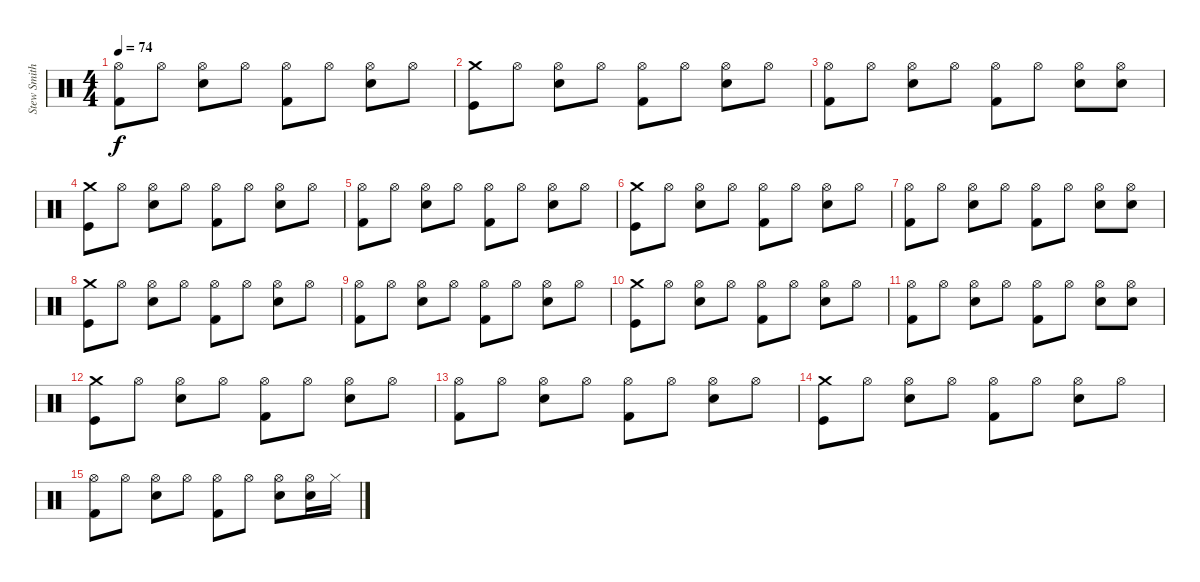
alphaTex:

\track ("Stew Smith" "Stew Smith") {instrument percussion}
\staff {score}
\articulation defaults
\ts (4 4)
\tempo 74
\clef neutral
\ks c
("Hi-Hat (open)" "Kick (hit) 2").8{dy f} "Hi-Hat (open)".8 ("Hi-Hat (open)" "Electric Snare (hit)").8 "Hi-Hat (open)".8 ("Hi-Hat (open)" "Kick (hit) 2").8 "Hi-Hat (open)".8 ("Hi-Hat (open)" "Electric Snare (hit)").8 "Hi-Hat (open)".8 |
("Crash medium (hit)" "Kick (hit)").8 "Hi-Hat (open)".8 ("Hi-Hat (open)" "Electric Snare (hit)").8 "Hi-Hat (open)".8 ("Hi-Hat (open)" "Kick (hit) 2").8 "Hi-Hat (open)".8 ("Hi-Hat (open)" "Electric Snare (hit)").8 "Hi-Hat (open)".8 |
("Hi-Hat (open)" "Kick (hit) 2").8 "Hi-Hat (open)".8 ("Hi-Hat (open)" "Electric Snare (hit)").8 "Hi-Hat (open)".8 ("Hi-Hat (open)" "Kick (hit) 2").8 "Hi-Hat (open)".8 ("Hi-Hat (open)" "Electric Snare (hit)").8 ("Hi-Hat (open)" "Electric Snare (hit)").8 |
("Crash medium (hit)" "Kick (hit)").8 "Hi-Hat (open)".8 ("Hi-Hat (open)" "Electric Snare (hit)").8 "Hi-Hat (open)".8 ("Hi-Hat (open)" "Kick (hit) 2").8 "Hi-Hat (open)".8 ("Hi-Hat (open)" "Electric Snare (hit)").8 "Hi-Hat (open)".8 |
("Hi-Hat (open)" "Kick (hit) 2").8 "Hi-Hat (open)".8 ("Hi-Hat (open)" "Electric Snare (hit)").8 "Hi-Hat (open)".8 ("Hi-Hat (open)" "Kick (hit) 2").8 "Hi-Hat (open)".8 ("Hi-Hat (open)" "Electric Snare (hit)").8 "Hi-Hat (open)".8 |
("Crash medium (hit)" "Kick (hit)").8 "Hi-Hat (open)".8 ("Hi-Hat (open)" "Electric Snare (hit)").8 "Hi-Hat (open)".8 ("Hi-Hat (open)" "Kick (hit) 2").8 "Hi-Hat (open)".8 ("Hi-Hat (open)" "Electric Snare (hit)").8 "Hi-Hat (open)".8 |
("Hi-Hat (open)" "Kick (hit) 2").8 "Hi-Hat (open)".8 ("Hi-Hat (open)" "Electric Snare (hit)").8 "Hi-Hat (open)".8 ("Hi-Hat (open)" "Kick (hit) 2").8 "Hi-Hat (open)".8 ("Hi-Hat (open)" "Electric Snare (hit)").8 ("Hi-Hat (open)" "Electric Snare (hit)").8 |
("Crash medium (hit)" "Kick (hit)").8 "Hi-Hat (open)".8 ("Hi-Hat (open)" "Electric Snare (hit)").8 "Hi-Hat (open)".8 ("Hi-Hat (open)" "Kick (hit) 2").8 "Hi-Hat (open)".8 ("Hi-Hat (open)" "Electric Snare (hit)").8 "Hi-Hat (open)".8 |
("Hi-Hat (open)" "Kick (hit) 2").8 "Hi-Hat (open)".8 ("Hi-Hat (open)" "Electric Snare (hit)").8 "Hi-Hat (open)".8 ("Hi-Hat (open)" "Kick (hit) 2").8 "Hi-Hat (open)".8 ("Hi-Hat (open)" "Electric Snare (hit)").8 "Hi-Hat (open)".8 |
("Crash medium (hit)" "Kick (hit)").8 "Hi-Hat (open)".8 ("Hi-Hat (open)" "Electric Snare (hit)").8 "Hi-Hat (open)".8 ("Hi-Hat (open)" "Kick (hit) 2").8 "Hi-Hat (open)".8 ("Hi-Hat (open)" "Electric Snare (hit)").8 "Hi-Hat (open)".8 |
("Hi-Hat (open)" "Kick (hit) 2").8 "Hi-Hat (open)".8 ("Hi-Hat (open)" "Electric Snare (hit)").8 "Hi-Hat (open)".8 ("Hi-Hat (open)" "Kick (hit) 2").8 "Hi-Hat (open)".8 ("Hi-Hat (open)" "Electric Snare (hit)").8 ("Hi-Hat (open)" "Electric Snare (hit)").8 |
("Crash medium (hit)" "Kick (hit)").8 "Hi-Hat (open)".8 ("Hi-Hat (open)" "Electric Snare (hit)").8 "Hi-Hat (open)".8 ("Hi-Hat (open)" "Kick (hit) 2").8 "Hi-Hat (open)".8 ("Hi-Hat (open)" "Electric Snare (hit)").8 "Hi-Hat (open)".8 |
("Hi-Hat (open)" "Kick (hit) 2").8 "Hi-Hat (open)".8 ("Hi-Hat (open)" "Electric Snare (hit)").8 "Hi-Hat (open)".8 ("Hi-Hat (open)" "Kick (hit) 2").8 "Hi-Hat (open)".8 ("Hi-Hat (open)" "Electric Snare (hit)").8 "Hi-Hat (open)".8 |
("Crash medium (hit)" "Kick (hit)").8 "Hi-Hat (open)".8 ("Hi-Hat (open)" "Electric Snare (hit)").8 "Hi-Hat (open)".8 ("Hi-Hat (open)" "Kick (hit) 2").8 "Hi-Hat (open)".8 ("Hi-Hat (open)" "Electric Snare (hit)").8 "Hi-Hat (open)".8 |
("Hi-Hat (open)" "Kick (hit) 2").8 "Hi-Hat (open)".8 ("Hi-Hat (open)" "Electric Snare (hit)").8 "Hi-Hat (open)".8 ("Hi-Hat (open)" "Kick (hit) 2").8 "Hi-Hat (open)".8 ("Hi-Hat (open)" "Electric Snare (hit)").8 ("Hi-Hat (open)" "Electric Snare (hit)").16 "Hi-Hat (closed)".16
